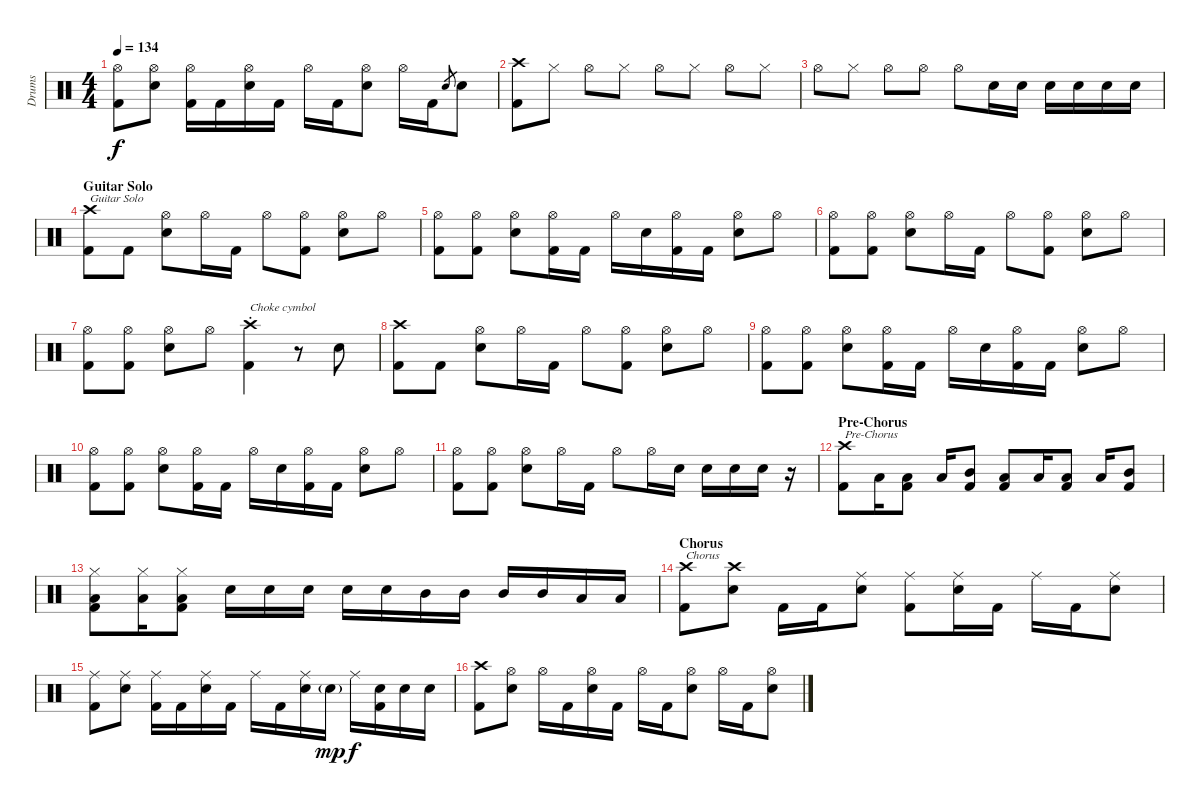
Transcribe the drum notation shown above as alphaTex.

\track ("Drums" "Drums") {instrument percussion}
\staff {score}
\articulation defaults
\ts (4 4)
\tempo 134
\clef neutral
\ks c
("Hi-Hat (open)" "Kick (hit) 2").8{dy f} ("Hi-Hat (open)" "Electric Snare (hit)").8 ("Hi-Hat (open)" "Kick (hit) 2").16 "Kick (hit) 2".16 ("Hi-Hat (open)" "Electric Snare (hit)").16 "Kick (hit) 2".16 "Hi-Hat (open)".16 "Kick (hit) 2".16 ("Hi-Hat (open)" "Electric Snare (hit)").8 "Hi-Hat (open)".16 "Kick (hit) 2".16 "Electric Snare (hit)".8{gr} "Electric Snare (hit)".8 |
("Crash high (hit)" "Kick (hit) 2").8 "Hi-Hat (closed)".8 "Hi-Hat (open)".8 "Hi-Hat (closed)".8 "Hi-Hat (open)".8 "Hi-Hat (closed)".8 "Hi-Hat (open)".8 "Hi-Hat (closed)".8 |
"Hi-Hat (open)".8 "Hi-Hat (closed)".8 "Hi-Hat (open)".8 "Hi-Hat (open)".8 "Hi-Hat (open)".8 "Electric Snare (hit)".16 "Electric Snare (hit)".16 "Electric Snare (hit)".16 "Electric Snare (hit)".16 "Electric Snare (hit)".16 "Electric Snare (hit)".16 |
\section ("" "Guitar Solo")
("Crash high (hit)" "Kick (hit) 2").8{txt "Guitar Solo"} "Kick (hit) 2".8 ("Hi-Hat (open)" "Electric Snare (hit)").8 "Hi-Hat (open)".16 "Kick (hit) 2".16 "Hi-Hat (open)".8 ("Hi-Hat (open)" "Kick (hit) 2").8 ("Hi-Hat (open)" "Electric Snare (hit)").8 "Hi-Hat (open)".8 |
("Hi-Hat (open)" "Kick (hit) 2").8 ("Hi-Hat (open)" "Kick (hit) 2").8 ("Hi-Hat (open)" "Electric Snare (hit)").8 ("Hi-Hat (open)" "Kick (hit) 2").16 "Kick (hit) 2".16 "Hi-Hat (open)".16 "Electric Snare (hit)".16 ("Hi-Hat (open)" "Kick (hit) 2").16 "Kick (hit) 2".16 ("Hi-Hat (open)" "Electric Snare (hit)").8 "Hi-Hat (open)".8 |
("Hi-Hat (open)" "Kick (hit) 2").8 ("Hi-Hat (open)" "Kick (hit) 2").8 ("Hi-Hat (open)" "Electric Snare (hit)").8 "Hi-Hat (open)".16 "Kick (hit) 2".16 "Hi-Hat (open)".8 ("Hi-Hat (open)" "Kick (hit) 2").8 ("Hi-Hat (open)" "Electric Snare (hit)").8 "Hi-Hat (open)".8 |
("Hi-Hat (open)" "Kick (hit) 2").8 ("Hi-Hat (open)" "Kick (hit) 2").8 ("Hi-Hat (open)" "Electric Snare (hit)").8 "Hi-Hat (open)".8 ("Crash high (hit)"{st} "Kick (hit) 2").4{txt "Choke cymbol"} r.8 "Electric Snare (hit)".8 |
("Crash high (hit)" "Kick (hit) 2").8 "Kick (hit) 2".8 ("Hi-Hat (open)" "Electric Snare (hit)").8 "Hi-Hat (open)".16 "Kick (hit) 2".16 "Hi-Hat (open)".8 ("Hi-Hat (open)" "Kick (hit) 2").8 ("Hi-Hat (open)" "Electric Snare (hit)").8 "Hi-Hat (open)".8 |
("Hi-Hat (open)" "Kick (hit) 2").8 ("Hi-Hat (open)" "Kick (hit) 2").8 ("Hi-Hat (open)" "Electric Snare (hit)").8 ("Hi-Hat (open)" "Kick (hit) 2").16 "Kick (hit) 2".16 "Hi-Hat (open)".16 "Electric Snare (hit)".16 ("Hi-Hat (open)" "Kick (hit) 2").16 "Kick (hit) 2".16 ("Hi-Hat (open)" "Electric Snare (hit)").8 "Hi-Hat (open)".8 |
("Hi-Hat (open)" "Kick (hit) 2").8 ("Hi-Hat (open)" "Kick (hit) 2").8 ("Hi-Hat (open)" "Electric Snare (hit)").8 ("Hi-Hat (open)" "Kick (hit) 2").16 "Kick (hit) 2".16 "Hi-Hat (open)".16 "Electric Snare (hit)".16 ("Hi-Hat (open)" "Kick (hit) 2").16 "Kick (hit) 2".16 ("Hi-Hat (open)" "Electric Snare (hit)").8 "Hi-Hat (open)".8 |
("Hi-Hat (open)" "Kick (hit) 2").8 ("Hi-Hat (open)" "Kick (hit) 2").8 ("Hi-Hat (open)" "Electric Snare (hit)").8 "Hi-Hat (open)".16 "Kick (hit) 2".16 "Hi-Hat (open)".8 "Hi-Hat (open)".16 "Electric Snare (hit)".16 "Electric Snare (hit)".16 "Electric Snare (hit)".16 "Electric Snare (hit)".16 r.16 |
\section ("" "Pre-Chorus")
("Crash high (hit)" "Kick (hit) 2").8{txt "Pre-Chorus"} "Low Floor Tom (hit)".16 ("Low Floor Tom (hit)" "Kick (hit) 2").8 "Low Floor Tom (hit)".16 ("Mid Tom (hit)" "Kick (hit) 2").8 ("Low Floor Tom (hit)" "Kick (hit) 2").8 "Low Floor Tom (hit)".16 ("Low Floor Tom (hit)" "Kick (hit) 2").8 "Low Floor Tom (hit)".16 ("Mid Tom (hit)" "Kick (hit) 2").8 |
("Hi-Hat (closed)" "Low Floor Tom (hit)" "Kick (hit) 2").8 ("Hi-Hat (closed)" "Low Floor Tom (hit)").16 ("Hi-Hat (closed)" "Low Floor Tom (hit)" "Kick (hit) 2").8 "Electric Snare (hit)".16 "Electric Snare (hit)".16 "Electric Snare (hit)".16 "Electric Snare (hit)".16 "Electric Snare (hit)".16 "Mid Tom (hit)".16 "Mid Tom (hit)".16 "Mid Tom (hit)".16 "Mid Tom (hit)".16 "Low Floor Tom (hit)".16 "Low Floor Tom (hit)".16 |
\section ("" "Chorus")
("Crash high (hit)" "Kick (hit) 2").8{txt "Chorus"} ("Crash high (hit)" "Electric Snare (hit)").8 "Kick (hit) 2".16 "Kick (hit) 2".16 ("Ride (middle)" "Electric Snare (hit)").8 ("Ride (middle)" "Kick (hit) 2").8 ("Ride (middle)" "Electric Snare (hit)").16 "Kick (hit) 2".16 "Ride (middle)".16 "Kick (hit) 2".16 ("Ride (middle)" "Electric Snare (hit)").8 |
("Ride (middle)" "Kick (hit) 2").8 ("Ride (middle)" "Electric Snare (hit)").8 ("Ride (middle)" "Kick (hit) 2").16 "Kick (hit) 2".16 ("Ride (middle)" "Electric Snare (hit)").16 "Kick (hit) 2".16 "Ride (middle)".16 "Kick (hit) 2".16 ("Ride (middle)" "Electric Snare (hit)").16 "Electric Snare (hit)"{g}.16{dy mp} "Ride (middle)".16{dy f} ("Electric Snare (hit)" "Kick (hit) 2").16 "Electric Snare (hit)".16 "Electric Snare (hit)".16 |
("Crash high (hit)" "Kick (hit) 2").8 ("Hi-Hat (open)" "Electric Snare (hit)").8 "Hi-Hat (open)".16 "Kick (hit) 2".16 ("Hi-Hat (open)" "Electric Snare (hit)").16 "Kick (hit) 2".16 "Hi-Hat (open)".16 "Kick (hit) 2".16 ("Hi-Hat (open)" "Electric Snare (hit)").8 "Hi-Hat (open)".16 "Kick (hit) 2".16 ("Hi-Hat (open)" "Electric Snare (hit)").8
